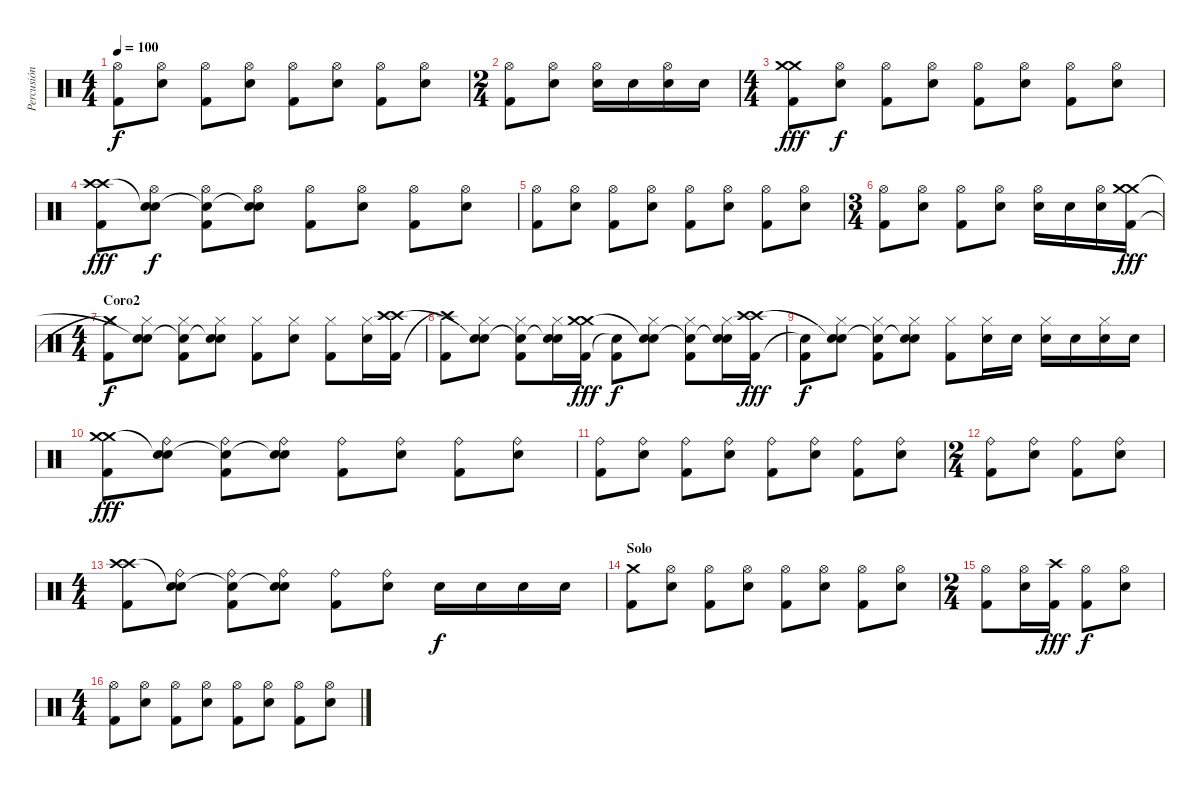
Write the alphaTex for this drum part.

\track ("Percusión" "Percusión") {instrument percussion}
\staff {score}
\articulation defaults
\ts (4 4)
\tempo 100
\clef neutral
\ks c
("Hi-Hat (open)" "Kick (hit) 2").8{dy f} ("Hi-Hat (open)" "Snare (hit) 2").8 ("Hi-Hat (open)" "Kick (hit) 2").8 ("Hi-Hat (open)" "Snare (hit) 2").8 ("Hi-Hat (open)" "Kick (hit) 2").8 ("Hi-Hat (open)" "Snare (hit) 2").8 ("Hi-Hat (open)" "Kick (hit) 2").8 ("Hi-Hat (open)" "Snare (hit) 2").8 |
\ts (2 4)
("Hi-Hat (open)" "Kick (hit) 2").8 ("Hi-Hat (open)" "Snare (hit) 2").8 ("Hi-Hat (open)" "Snare (hit) 2").16 "Snare (hit) 2".16 ("Hi-Hat (open)" "Snare (hit) 2").16 "Snare (hit) 2".16 |
\ts (4 4)
("Crash medium (hit)" "Kick (hit) 2" "Crash medium (hit)").8{dy fff} ("Hi-Hat (open)" "Snare (hit) 2").8{dy f} ("Hi-Hat (open)" "Kick (hit) 2").8 ("Hi-Hat (open)" "Snare (hit) 2").8 ("Hi-Hat (open)" "Kick (hit) 2").8 ("Hi-Hat (open)" "Snare (hit) 2").8 ("Hi-Hat (open)" "Kick (hit) 2").8 ("Hi-Hat (open)" "Snare (hit) 2").8 |
("Crash high (hit)" "Kick (hit) 2" "Crash high (hit)").8{dy fff} ("Hi-Hat (open)" "Snare (hit) 2" "Snare (hit)"{t}).8{dy f} ("Hi-Hat (open)" "Kick (hit) 2" "Snare (hit)"{t}).8 ("Hi-Hat (open)" "Snare (hit) 2" "Snare (hit)"{t}).8 ("Hi-Hat (open)" "Kick (hit) 2").8 ("Hi-Hat (open)" "Snare (hit) 2").8 ("Hi-Hat (open)" "Kick (hit) 2").8 ("Hi-Hat (open)" "Snare (hit) 2").8 |
("Hi-Hat (open)" "Kick (hit) 2").8 ("Hi-Hat (open)" "Snare (hit) 2").8 ("Hi-Hat (open)" "Kick (hit) 2").8 ("Hi-Hat (open)" "Snare (hit) 2").8 ("Hi-Hat (open)" "Kick (hit) 2").8 ("Hi-Hat (open)" "Snare (hit) 2").8 ("Hi-Hat (open)" "Kick (hit) 2").8 ("Hi-Hat (open)" "Snare (hit) 2").8 |
\ts (3 4)
("Hi-Hat (open)" "Kick (hit) 2").8 ("Hi-Hat (open)" "Snare (hit) 2").8 ("Hi-Hat (open)" "Kick (hit) 2").8 ("Hi-Hat (open)" "Snare (hit) 2").8 ("Hi-Hat (open)" "Snare (hit) 2").16 "Snare (hit) 2".16 ("Hi-Hat (open)" "Snare (hit) 2").16 ("Crash medium (hit)" "Kick (hit) 2" "Crash medium (hit)").16{dy fff} |
\ts (4 4)
\section ("" "Coro2")
("Kick (hit) 2" "Crash medium (hit)"{t}).8{dy f} ("Hi-Hat (closed)" "Snare (hit) 2" "Snare (hit)"{t}).8 ("Hi-Hat (closed)" "Kick (hit) 2" "Snare (hit)"{t}).8 ("Hi-Hat (closed)" "Snare (hit) 2" "Snare (hit)"{t}).8 ("Hi-Hat (closed)" "Kick (hit) 2").8 ("Hi-Hat (closed)" "Snare (hit) 2").8 ("Hi-Hat (closed)" "Kick (hit) 2").8 ("Hi-Hat (closed)" "Snare (hit) 2").16 ("Crash high (hit)" "Kick (hit) 2" "Crash high (hit)").16 |
("Kick (hit) 2" "Crash high (hit)"{t}).8 ("Hi-Hat (closed)" "Snare (hit) 2" "Snare (hit)"{t}).8 ("Hi-Hat (closed)" "Kick (hit) 2" "Snare (hit)"{t}).8 ("Hi-Hat (closed)" "Snare (hit) 2" "Snare (hit)"{t}).16 ("Crash medium (hit)" "Kick (hit) 2" "Crash medium (hit)").16{dy fff} ("Kick (hit) 2" "Snare (hit)"{t}).8{dy f} ("Hi-Hat (closed)" "Snare (hit) 2" "Snare (hit)"{t}).8 ("Hi-Hat (closed)" "Kick (hit) 2" "Snare (hit)"{t}).8 ("Hi-Hat (closed)" "Snare (hit) 2" "Snare (hit)"{t}).16 ("Crash high (hit)" "Kick (hit) 2" "Crash high (hit)").16{dy fff} |
("Kick (hit) 2" "Snare (hit)"{t}).8{dy f} ("Hi-Hat (closed)" "Snare (hit) 2" "Snare (hit)"{t}).8 ("Hi-Hat (closed)" "Kick (hit) 2" "Snare (hit)"{t}).8 ("Hi-Hat (closed)" "Snare (hit) 2" "Snare (hit)"{t}).8 ("Hi-Hat (closed)" "Kick (hit) 2").8 ("Hi-Hat (closed)" "Snare (hit) 2").16 "Snare (hit) 2".16 ("Hi-Hat (closed)" "Snare (hit) 2").16 "Snare (hit) 2".16 ("Hi-Hat (closed)" "Snare (hit) 2").16 "Snare (hit) 2".16 |
("Crash medium (hit)" "Kick (hit) 2" "Crash medium (hit)").8{dy fff} ("Ride (bell)" "Snare (hit) 2" "Snare (hit)"{t}).8 ("Ride (bell)" "Kick (hit) 2" "Snare (hit)"{t}).8 ("Ride (bell)" "Snare (hit) 2" "Snare (hit)"{t}).8 ("Ride (bell)" "Kick (hit) 2").8 ("Ride (bell)" "Snare (hit) 2").8 ("Ride (bell)" "Kick (hit) 2").8 ("Ride (bell)" "Snare (hit) 2").8 |
("Ride (bell)" "Kick (hit) 2").8 ("Ride (bell)" "Snare (hit) 2").8 ("Ride (bell)" "Kick (hit) 2").8 ("Ride (bell)" "Snare (hit) 2").8 ("Ride (bell)" "Kick (hit) 2").8 ("Ride (bell)" "Snare (hit) 2").8 ("Ride (bell)" "Kick (hit) 2").8 ("Ride (bell)" "Snare (hit) 2").8 |
\ts (2 4)
("Ride (bell)" "Kick (hit) 2").8 ("Ride (bell)" "Snare (hit) 2").8 ("Ride (bell)" "Kick (hit) 2").8 ("Ride (bell)" "Snare (hit) 2").8 |
\ts (4 4)
("Crash high (hit)" "Kick (hit) 2" "Crash high (hit)").8 ("Ride (bell)" "Snare (hit) 2" "Snare (hit)"{t}).8 ("Ride (bell)" "Kick (hit) 2" "Snare (hit)"{t}).8 ("Ride (bell)" "Snare (hit) 2" "Snare (hit)"{t}).8 ("Ride (bell)" "Kick (hit) 2").8 ("Ride (bell)" "Snare (hit) 2").8 "Snare (hit) 2".16{dy f} "Snare (hit) 2".16 "Snare (hit) 2".16 "Snare (hit) 2".16 |
\section ("" "Solo")
("Crash medium (hit)" "Kick (hit) 2").8 ("Hi-Hat (open)" "Snare (hit) 2").8 ("Hi-Hat (open)" "Kick (hit) 2").8 ("Hi-Hat (open)" "Snare (hit) 2").8 ("Hi-Hat (open)" "Kick (hit) 2").8 ("Hi-Hat (open)" "Snare (hit) 2").8 ("Hi-Hat (open)" "Kick (hit) 2").8 ("Hi-Hat (open)" "Snare (hit) 2").8 |
\ts (2 4)
("Hi-Hat (open)" "Kick (hit) 2").8 ("Hi-Hat (open)" "Snare (hit) 2").16 ("Crash high (hit)" "Kick (hit) 2").16{dy fff} ("Hi-Hat (open)" "Kick (hit) 2").8{dy f} ("Hi-Hat (open)" "Snare (hit) 2").8 |
\ts (4 4)
("Hi-Hat (open)" "Kick (hit) 2").8 ("Hi-Hat (open)" "Snare (hit) 2").8 ("Hi-Hat (open)" "Kick (hit) 2").8 ("Hi-Hat (open)" "Snare (hit) 2").8 ("Hi-Hat (open)" "Kick (hit) 2").8 ("Hi-Hat (open)" "Snare (hit) 2").8 ("Hi-Hat (open)" "Kick (hit) 2").8 ("Hi-Hat (open)" "Snare (hit) 2").8
